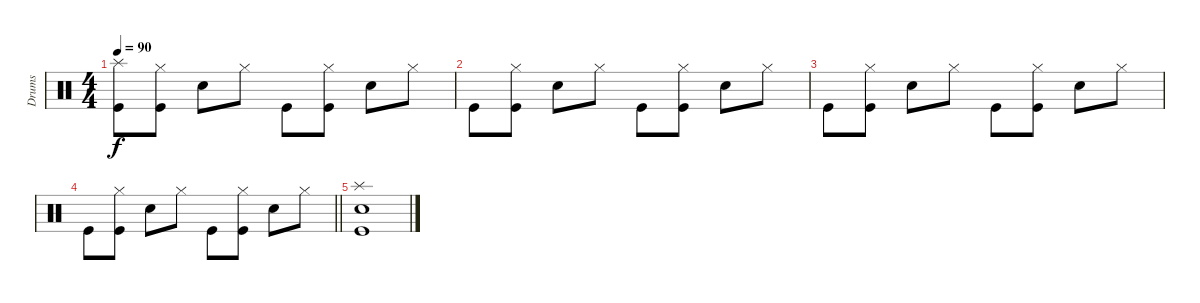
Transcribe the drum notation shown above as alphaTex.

\track ("Drums" "Drums") {instrument percussion}
\staff {score}
\articulation defaults
\ts (4 4)
\tempo 90
\clef neutral
\ks c
("Splash (hit)" "Kick (hit)").8{dy f} ("Hi-Hat (closed)" "Kick (hit)").8 "Snare (hit) 2".8 "Hi-Hat (closed)".8 "Kick (hit)".8 ("Hi-Hat (closed)" "Kick (hit)").8 "Snare (hit) 2".8 "Hi-Hat (closed)".8 |
"Kick (hit)".8 ("Hi-Hat (closed)" "Kick (hit)").8 "Snare (hit) 2".8 "Hi-Hat (closed)".8 "Kick (hit)".8 ("Hi-Hat (closed)" "Kick (hit)").8 "Snare (hit) 2".8 "Hi-Hat (closed)".8 |
"Kick (hit)".8 ("Hi-Hat (closed)" "Kick (hit)").8 "Snare (hit) 2".8 "Hi-Hat (closed)".8 "Kick (hit)".8 ("Hi-Hat (closed)" "Kick (hit)").8 "Snare (hit) 2".8 "Hi-Hat (closed)".8 |
\barLineRight lightlight "Kick (hit)".8
("Hi-Hat (closed)" "Kick (hit)").8 "Snare (hit) 2".8 "Hi-Hat (closed)".8 "Kick (hit)".8 ("Hi-Hat (closed)" "Kick (hit)").8 "Snare (hit) 2".8 "Hi-Hat (closed)".8 |
("Splash (hit)" "Snare (hit) 2" "Kick (hit)").1
